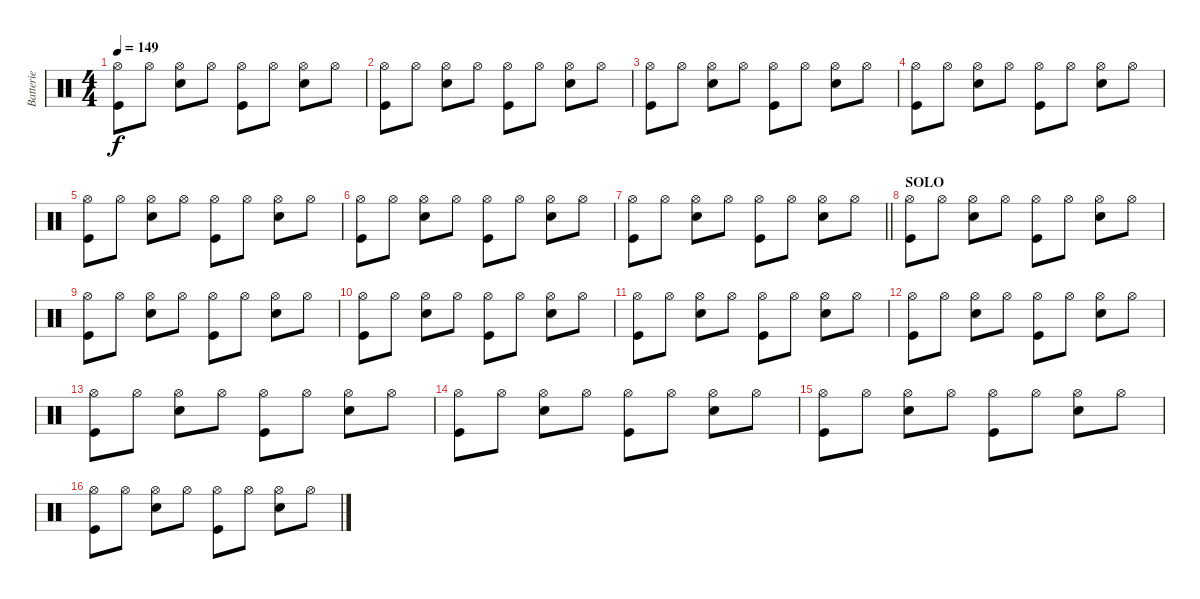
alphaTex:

\track ("Batterie" "Batterie") {instrument percussion}
\staff {score}
\articulation defaults
\ts (4 4)
\tempo 149
\clef neutral
\ks c
("Hi-Hat (open)" "Kick (hit)").8{dy f} "Hi-Hat (open)".8 ("Hi-Hat (open)" "Snare (hit) 2").8 "Hi-Hat (open)".8 ("Hi-Hat (open)" "Kick (hit)").8 "Hi-Hat (open)".8 ("Hi-Hat (open)" "Snare (hit) 2").8 "Hi-Hat (open)".8 |
("Hi-Hat (open)" "Kick (hit)").8 "Hi-Hat (open)".8 ("Hi-Hat (open)" "Snare (hit) 2").8 "Hi-Hat (open)".8 ("Hi-Hat (open)" "Kick (hit)").8 "Hi-Hat (open)".8 ("Hi-Hat (open)" "Snare (hit) 2").8 "Hi-Hat (open)".8 |
("Hi-Hat (open)" "Kick (hit)").8 "Hi-Hat (open)".8 ("Hi-Hat (open)" "Snare (hit) 2").8 "Hi-Hat (open)".8 ("Hi-Hat (open)" "Kick (hit)").8 "Hi-Hat (open)".8 ("Hi-Hat (open)" "Snare (hit) 2").8 "Hi-Hat (open)".8 |
("Hi-Hat (open)" "Kick (hit)").8 "Hi-Hat (open)".8 ("Hi-Hat (open)" "Snare (hit) 2").8 "Hi-Hat (open)".8 ("Hi-Hat (open)" "Kick (hit)").8 "Hi-Hat (open)".8 ("Hi-Hat (open)" "Snare (hit) 2").8 "Hi-Hat (open)".8 |
("Hi-Hat (open)" "Kick (hit)").8 "Hi-Hat (open)".8 ("Hi-Hat (open)" "Snare (hit) 2").8 "Hi-Hat (open)".8 ("Hi-Hat (open)" "Kick (hit)").8 "Hi-Hat (open)".8 ("Hi-Hat (open)" "Snare (hit) 2").8 "Hi-Hat (open)".8 |
("Hi-Hat (open)" "Kick (hit)").8 "Hi-Hat (open)".8 ("Hi-Hat (open)" "Snare (hit) 2").8 "Hi-Hat (open)".8 ("Hi-Hat (open)" "Kick (hit)").8 "Hi-Hat (open)".8 ("Hi-Hat (open)" "Snare (hit) 2").8 "Hi-Hat (open)".8 |
\barLineRight lightlight
("Hi-Hat (open)" "Kick (hit)").8 "Hi-Hat (open)".8 ("Hi-Hat (open)" "Snare (hit) 2").8 "Hi-Hat (open)".8 ("Hi-Hat (open)" "Kick (hit)").8 "Hi-Hat (open)".8 ("Hi-Hat (open)" "Snare (hit) 2").8 "Hi-Hat (open)".8 |
\section ("" "SOLO")
("Hi-Hat (open)" "Kick (hit)").8 "Hi-Hat (open)".8 ("Hi-Hat (open)" "Snare (hit) 2").8 "Hi-Hat (open)".8 ("Hi-Hat (open)" "Kick (hit)").8 "Hi-Hat (open)".8 ("Hi-Hat (open)" "Snare (hit) 2").8 "Hi-Hat (open)".8 |
("Hi-Hat (open)" "Kick (hit)").8 "Hi-Hat (open)".8 ("Hi-Hat (open)" "Snare (hit) 2").8 "Hi-Hat (open)".8 ("Hi-Hat (open)" "Kick (hit)").8 "Hi-Hat (open)".8 ("Hi-Hat (open)" "Snare (hit) 2").8 "Hi-Hat (open)".8 |
("Hi-Hat (open)" "Kick (hit)").8 "Hi-Hat (open)".8 ("Hi-Hat (open)" "Snare (hit) 2").8 "Hi-Hat (open)".8 ("Hi-Hat (open)" "Kick (hit)").8 "Hi-Hat (open)".8 ("Hi-Hat (open)" "Snare (hit) 2").8 "Hi-Hat (open)".8 |
("Hi-Hat (open)" "Kick (hit)").8 "Hi-Hat (open)".8 ("Hi-Hat (open)" "Snare (hit) 2").8 "Hi-Hat (open)".8 ("Hi-Hat (open)" "Kick (hit)").8 "Hi-Hat (open)".8 ("Hi-Hat (open)" "Snare (hit) 2").8 "Hi-Hat (open)".8 |
("Hi-Hat (open)" "Kick (hit)").8 "Hi-Hat (open)".8 ("Hi-Hat (open)" "Snare (hit) 2").8 "Hi-Hat (open)".8 ("Hi-Hat (open)" "Kick (hit)").8 "Hi-Hat (open)".8 ("Hi-Hat (open)" "Snare (hit) 2").8 "Hi-Hat (open)".8 |
("Hi-Hat (open)" "Kick (hit)").8 "Hi-Hat (open)".8 ("Hi-Hat (open)" "Snare (hit) 2").8 "Hi-Hat (open)".8 ("Hi-Hat (open)" "Kick (hit)").8 "Hi-Hat (open)".8 ("Hi-Hat (open)" "Snare (hit) 2").8 "Hi-Hat (open)".8 |
("Hi-Hat (open)" "Kick (hit)").8 "Hi-Hat (open)".8 ("Hi-Hat (open)" "Snare (hit) 2").8 "Hi-Hat (open)".8 ("Hi-Hat (open)" "Kick (hit)").8 "Hi-Hat (open)".8 ("Hi-Hat (open)" "Snare (hit) 2").8 "Hi-Hat (open)".8 |
("Hi-Hat (open)" "Kick (hit)").8 "Hi-Hat (open)".8 ("Hi-Hat (open)" "Snare (hit) 2").8 "Hi-Hat (open)".8 ("Hi-Hat (open)" "Kick (hit)").8 "Hi-Hat (open)".8 ("Hi-Hat (open)" "Snare (hit) 2").8 "Hi-Hat (open)".8 |
("Hi-Hat (open)" "Kick (hit)").8 "Hi-Hat (open)".8 ("Hi-Hat (open)" "Snare (hit) 2").8 "Hi-Hat (open)".8 ("Hi-Hat (open)" "Kick (hit)").8 "Hi-Hat (open)".8 ("Hi-Hat (open)" "Snare (hit) 2").8 "Hi-Hat (open)".8
